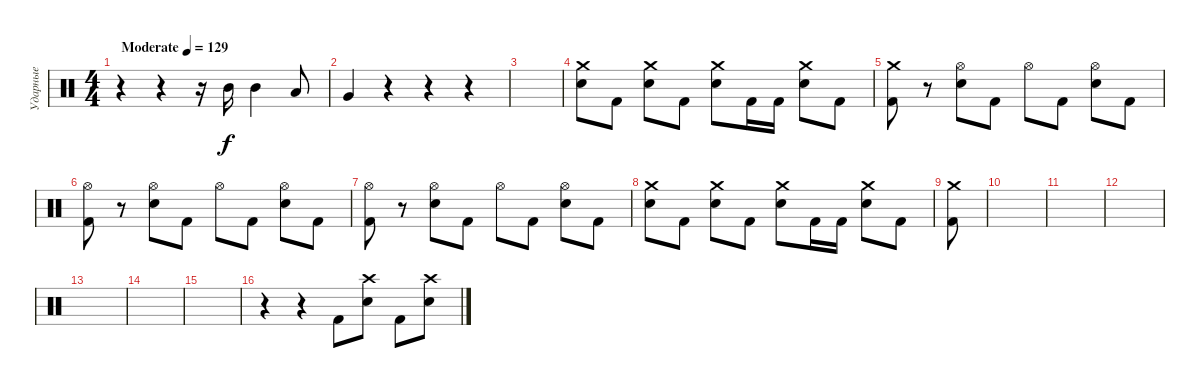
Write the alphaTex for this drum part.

\track ("Ударные" "Ударные") {instrument percussion}
\staff {score}
\articulation defaults
\ts (4 4)
\tempo (129 "Moderate")
\clef neutral
\ks c
r.4{dy f} r.4 r.16 "Mid Tom (hit)".16 "Mid Tom (hit)".4 "Low Tom (hit)".8 |
"Very Low Tom (hit)".4 r.4 r.4 r.4 |
|
("Crash medium (hit)" "Electric Snare (hit)").8 "Kick (hit) 2".8 ("Crash medium (hit)" "Electric Snare (hit)").8 "Kick (hit) 2".8 ("Crash medium (hit)" "Electric Snare (hit)").8 "Kick (hit) 2".16 "Kick (hit) 2".16 ("Crash medium (hit)" "Electric Snare (hit)").8 "Kick (hit) 2".8 |
("Crash medium (hit)" "Kick (hit) 2").8 r.8 ("Hi-Hat (open)" "Electric Snare (hit)").8 "Kick (hit) 2".8 "Hi-Hat (open)".8 "Kick (hit) 2".8 ("Hi-Hat (open)" "Electric Snare (hit)").8 "Kick (hit) 2".8 |
("Hi-Hat (open)" "Kick (hit) 2").8 r.8 ("Hi-Hat (open)" "Electric Snare (hit)").8 "Kick (hit) 2".8 "Hi-Hat (open)".8 "Kick (hit) 2".8 ("Hi-Hat (open)" "Electric Snare (hit)").8 "Kick (hit) 2".8 |
("Hi-Hat (open)" "Kick (hit) 2").8 r.8 ("Hi-Hat (open)" "Electric Snare (hit)").8 "Kick (hit) 2".8 "Hi-Hat (open)".8 "Kick (hit) 2".8 ("Hi-Hat (open)" "Electric Snare (hit)").8 "Kick (hit) 2".8 |
("Crash medium (hit)" "Electric Snare (hit)").8 "Kick (hit) 2".8 ("Crash medium (hit)" "Electric Snare (hit)").8 "Kick (hit) 2".8 ("Crash medium (hit)" "Electric Snare (hit)").8 "Kick (hit) 2".16 "Kick (hit) 2".16 ("Crash medium (hit)" "Electric Snare (hit)").8 "Kick (hit) 2".8 |
("Crash medium (hit)" "Kick (hit) 2").8 |
|
|
|
|
|
|
r.4 r.4 "Kick (hit) 2".8 ("Crash high (hit)" "Electric Snare (hit)").8 "Kick (hit) 2".8 ("Crash high (hit)" "Electric Snare (hit)").8
